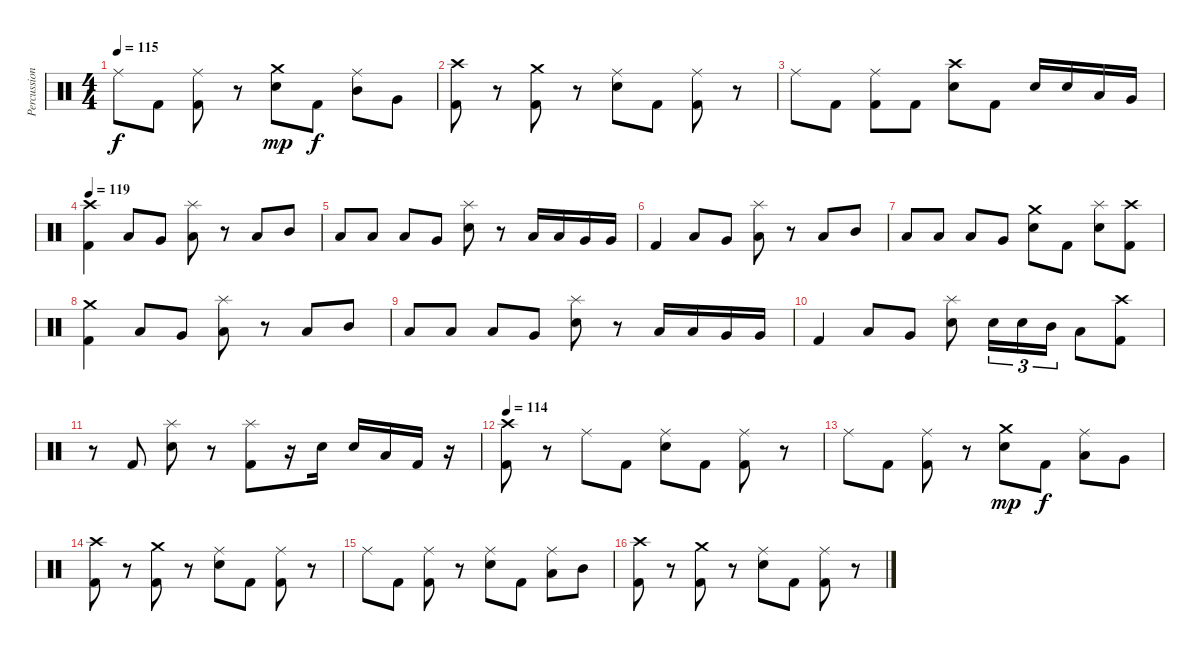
\track ("Percussion" "Percussion") {instrument percussion}
\staff {score}
\articulation defaults
\ts (4 4)
\tempo 115
\clef neutral
\ks c "Ride (middle)".8{dy f} "Kick (hit) 2".8
("Ride (middle)" "Kick (hit) 2").8 r.8 ("Crash medium (hit)" "Snare (hit) 2").8{dy mp} "Kick (hit) 2".8{dy f} ("Ride (middle)" "Mid Tom (hit)").8 "Very Low Tom (hit)".8 |
("Crash high (hit)" "Kick (hit) 2").8 r.8 ("Crash medium (hit)" "Kick (hit) 2").8 r.8 ("Ride (middle)" "Snare (hit) 2").8 "Kick (hit) 2".8 ("Ride (middle)" "Kick (hit) 2").8 r.8 |
"Ride (middle)".8 "Kick (hit) 2".8 ("Ride (middle)" "Kick (hit) 2").8 "Kick (hit) 2".8 ("Crash high (hit)" "Snare (hit) 2").8 "Kick (hit) 2".8 "Snare (hit) 2".16 "Snare (hit) 2".16 "Low Tom (hit)".16 "Very Low Tom (hit)".16 |
\tempo 119
("Crash high (hit)" "Kick (hit) 2").4 "Low Tom (hit)".8 "Very Low Tom (hit)".8 ("Splash (hit)" "Low Floor Tom (hit)").8 r.8 "Low Floor Tom (hit)".8 "Mid Tom (hit)".8 |
"Low Floor Tom (hit)".8 "Low Tom (hit)".8 "Low Floor Tom (hit)".8 "Very Low Tom (hit)".8 ("Splash (hit)" "Snare (hit) 2").8 r.8 "Low Tom (hit)".16 "Low Tom (hit)".16 "Very Low Tom (hit)".16 "Very Low Tom (hit)".16 |
"Kick (hit) 2".4 "Low Tom (hit)".8 "Very Low Tom (hit)".8 ("Splash (hit)" "Low Floor Tom (hit)").8 r.8 "Low Floor Tom (hit)".8 "Mid Tom (hit)".8 |
"Low Floor Tom (hit)".8 "Low Tom (hit)".8 "Low Floor Tom (hit)".8 "Very Low Tom (hit)".8 ("Crash medium (hit)" "Snare (hit) 2").8 "Kick (hit) 2".8 ("Splash (hit)" "Snare (hit) 2").8 ("Crash high (hit)" "Kick (hit) 2").8 |
("Crash medium (hit)" "Kick (hit) 2").4 "Low Tom (hit)".8 "Very Low Tom (hit)".8 ("Splash (hit)" "Low Floor Tom (hit)").8 r.8 "Low Floor Tom (hit)".8 "Mid Tom (hit)".8 |
"Low Floor Tom (hit)".8 "Low Tom (hit)".8 "Low Floor Tom (hit)".8 "Very Low Tom (hit)".8 ("Splash (hit)" "Snare (hit) 2").8 r.8 "Low Tom (hit)".16 "Low Tom (hit)".16 "Very Low Tom (hit)".16 "Very Low Tom (hit)".16 |
"Kick (hit) 2".4 "Low Tom (hit)".8 "Very Low Tom (hit)".8 ("Splash (hit)" "Snare (hit) 2").8 "Snare (hit) 2".16{tu (3 2)} "Snare (hit) 2".16{tu (3 2)} "Mid Tom (hit)".16{tu (3 2)} "Low Tom (hit)".8 ("Crash high (hit)" "Kick (hit) 2").8 |
r.8 "Kick (hit) 2".8 ("Splash (hit)" "Snare (hit) 2").8 r.8 ("Splash (hit)" "Kick (hit) 2").8 r.16 "Snare (hit) 2".16 "Snare (hit) 2".16 "Low Tom (hit)".16 "Kick (hit) 2".16 r.16 |
\tempo 114
("Crash high (hit)" "Kick (hit) 2").8 r.8 "Ride (middle)".8 "Kick (hit) 2".8 ("Ride (middle)" "Snare (hit) 2").8 "Kick (hit) 2".8 ("Ride (middle)" "Kick (hit) 2").8 r.8 |
"Ride (middle)".8 "Kick (hit) 2".8 ("Ride (middle)" "Kick (hit) 2").8 r.8 ("Crash medium (hit)" "Snare (hit) 2").8{dy mp} "Kick (hit) 2".8{dy f} ("Ride (middle)" "Low Tom (hit)").8 "Very Low Tom (hit)".8 |
("Crash high (hit)" "Kick (hit) 2").8 r.8 ("Crash medium (hit)" "Kick (hit) 2").8 r.8 ("Ride (middle)" "Snare (hit) 2").8 "Kick (hit) 2".8 ("Ride (middle)" "Kick (hit) 2").8 r.8 |
"Ride (middle)".8 "Kick (hit) 2".8 ("Ride (middle)" "Kick (hit) 2").8 r.8 ("Ride (middle)" "Snare (hit) 2").8 "Kick (hit) 2".8 ("Ride (middle)" "Low Tom (hit)").8 "Mid Tom (hit)".8 |
("Crash high (hit)" "Kick (hit) 2").8 r.8 ("Crash medium (hit)" "Kick (hit) 2").8 r.8 ("Ride (middle)" "Snare (hit) 2").8 "Kick (hit) 2".8 ("Ride (middle)" "Kick (hit) 2").8 r.8
